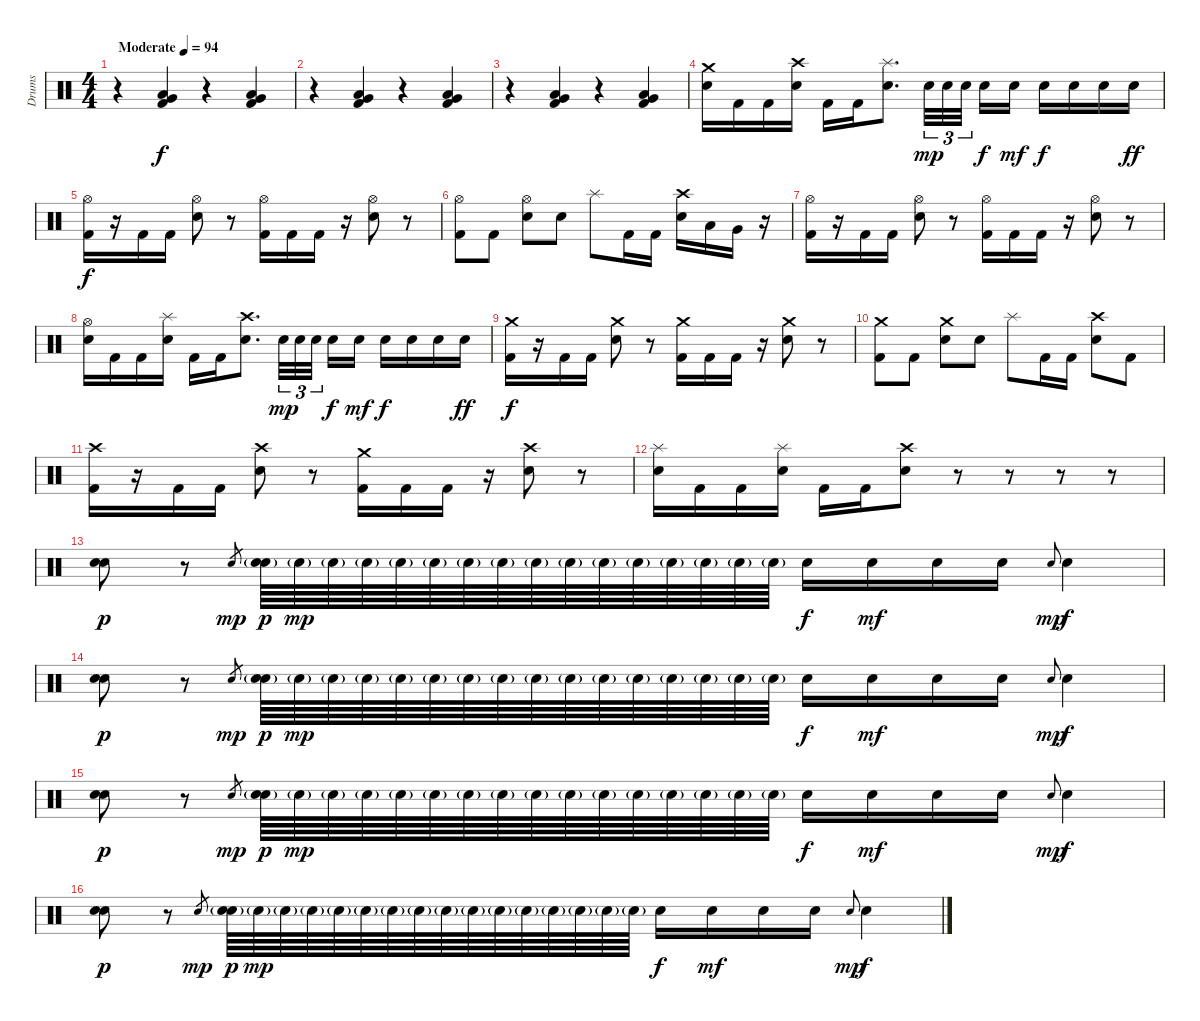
\track ("Drums" "Drums") {instrument percussion}
\staff {score}
\articulation defaults
\ts (4 4)
\tempo (94 "Moderate")
\clef neutral
\ks c
r.4{dy f} ("Very Low Tom (hit)" "Low Floor Tom (hit)" "Kick (hit) 2").4 r.4 ("Very Low Tom (hit)" "Low Floor Tom (hit)" "Kick (hit) 2").4 |
r.4 ("Very Low Tom (hit)" "Low Floor Tom (hit)" "Kick (hit) 2").4 r.4 ("Very Low Tom (hit)" "Low Floor Tom (hit)" "Kick (hit) 2").4 |
r.4 ("Very Low Tom (hit)" "Low Floor Tom (hit)" "Kick (hit) 2").4 r.4 ("Very Low Tom (hit)" "Low Floor Tom (hit)" "Kick (hit) 2").4 |
("Crash medium (hit)" "Electric Snare (hit)").16 "Kick (hit) 2".16 "Kick (hit) 2".16 ("Crash high (hit)" "Electric Snare (hit)").16 "Kick (hit) 2".16 "Kick (hit) 2".16 ("Splash (hit)" "Electric Snare (hit)").8{d} "Electric Snare (hit)".32{tu (3 2) dy mp} "Electric Snare (hit)".32{tu (3 2)} "Electric Snare (hit)".32{tu (3 2) beam splitsecondary} "Electric Snare (hit)".16{dy f} "Electric Snare (hit)".16{dy mf} "Electric Snare (hit)".16{dy f} "Electric Snare (hit)".16 "Electric Snare (hit)".16 "Electric Snare (hit)".16{dy ff} |
("Hi-Hat (open)" "Kick (hit) 2").16{dy f} r.16 "Kick (hit) 2".16 "Kick (hit) 2".16 ("Hi-Hat (open)" "Electric Snare (hit)").8 r.8 ("Hi-Hat (open)" "Kick (hit) 2").16 "Kick (hit) 2".16 "Kick (hit) 2".16 r.16 ("Hi-Hat (open)" "Electric Snare (hit)").8 r.8 |
("Hi-Hat (open)" "Kick (hit) 2").8 "Kick (hit) 2".8 ("Hi-Hat (open)" "Electric Snare (hit)").8 "Electric Snare (hit)".8 "Splash (hit)".8 "Kick (hit) 2".16 "Kick (hit) 2".16 ("Crash high (hit)" "Electric Snare (hit)").16 "Low Tom (hit)".16 "Very Low Tom (hit)".16 r.16 |
("Hi-Hat (open)" "Kick (hit) 2").16 r.16 "Kick (hit) 2".16 "Kick (hit) 2".16 ("Hi-Hat (open)" "Electric Snare (hit)").8 r.8 ("Hi-Hat (open)" "Kick (hit) 2").16 "Kick (hit) 2".16 "Kick (hit) 2".16 r.16 ("Hi-Hat (open)" "Electric Snare (hit)").8 r.8 |
("Hi-Hat (open)" "Electric Snare (hit)").16 "Kick (hit) 2".16 "Kick (hit) 2".16 ("Splash (hit)" "Electric Snare (hit)").16 "Kick (hit) 2".16 "Kick (hit) 2".16 ("Crash high (hit)" "Electric Snare (hit)").8{d} "Electric Snare (hit)".32{tu (3 2) dy mp} "Electric Snare (hit)".32{tu (3 2)} "Electric Snare (hit)".32{tu (3 2) beam splitsecondary} "Electric Snare (hit)".16{dy f} "Electric Snare (hit)".16{dy mf} "Electric Snare (hit)".16{dy f} "Electric Snare (hit)".16 "Electric Snare (hit)".16 "Electric Snare (hit)".16{dy ff} |
("Crash medium (hit)" "Kick (hit) 2").16{dy f} r.16 "Kick (hit) 2".16 "Kick (hit) 2".16 ("Crash medium (hit)" "Electric Snare (hit)").8 r.8 ("Crash medium (hit)" "Kick (hit) 2").16 "Kick (hit) 2".16 "Kick (hit) 2".16 r.16 ("Crash medium (hit)" "Electric Snare (hit)").8 r.8 |
("Crash medium (hit)" "Kick (hit) 2").8 "Kick (hit) 2".8 ("Crash medium (hit)" "Electric Snare (hit)").8 "Electric Snare (hit)".8 "Splash (hit)".8 "Kick (hit) 2".16 "Kick (hit) 2".16 ("Crash high (hit)" "Electric Snare (hit)").8 "Kick (hit) 2".8 |
("Crash high (hit)" "Kick (hit) 2").16 r.16 "Kick (hit) 2".16 "Kick (hit) 2".16 ("Crash high (hit)" "Electric Snare (hit)").8 r.8 ("Crash medium (hit)" "Kick (hit) 2").16 "Kick (hit) 2".16 "Kick (hit) 2".16 r.16 ("Crash high (hit)" "Electric Snare (hit)").8 r.8 |
("Splash (hit)" "Electric Snare (hit)").16 "Kick (hit) 2".16 "Kick (hit) 2".16 ("Splash (hit)" "Electric Snare (hit)").16 "Kick (hit) 2".16 "Kick (hit) 2".16 ("Crash high (hit)" "Electric Snare (hit)").8 r.8 r.8 r.8 r.8 |
("Electric Snare (hit)" "Snare (hit) 2").8{dy p} r.8 "Electric Snare (hit)".8{gr dy mp} ("Electric Snare (hit)"{g} "Snare (hit) 2").64{dy p} "Electric Snare (hit)"{g}.64{dy mp} "Electric Snare (hit)"{g}.64 "Electric Snare (hit)"{g}.64 "Electric Snare (hit)"{g}.64 "Electric Snare (hit)"{g}.64 "Electric Snare (hit)"{g}.64 "Electric Snare (hit)"{g}.64 "Electric Snare (hit)"{g}.64 "Electric Snare (hit)"{g}.64 "Electric Snare (hit)"{g}.64 "Electric Snare (hit)"{g}.64 "Electric Snare (hit)"{g}.64 "Electric Snare (hit)"{g}.64 "Electric Snare (hit)"{g}.64 "Electric Snare (hit)"{g}.64 "Electric Snare (hit)".16{dy f} "Electric Snare (hit)".16{dy mf} "Electric Snare (hit)".16 "Electric Snare (hit)".16 "Electric Snare (hit)".8{gr onbeat dy mp} "Electric Snare (hit)".4{dy f} |
("Electric Snare (hit)" "Snare (hit) 2").8{dy p} r.8 "Electric Snare (hit)".8{gr dy mp} ("Electric Snare (hit)"{g} "Snare (hit) 2").64{dy p} "Electric Snare (hit)"{g}.64{dy mp} "Electric Snare (hit)"{g}.64 "Electric Snare (hit)"{g}.64 "Electric Snare (hit)"{g}.64 "Electric Snare (hit)"{g}.64 "Electric Snare (hit)"{g}.64 "Electric Snare (hit)"{g}.64 "Electric Snare (hit)"{g}.64 "Electric Snare (hit)"{g}.64 "Electric Snare (hit)"{g}.64 "Electric Snare (hit)"{g}.64 "Electric Snare (hit)"{g}.64 "Electric Snare (hit)"{g}.64 "Electric Snare (hit)"{g}.64 "Electric Snare (hit)"{g}.64 "Electric Snare (hit)".16{dy f} "Electric Snare (hit)".16{dy mf} "Electric Snare (hit)".16 "Electric Snare (hit)".16 "Electric Snare (hit)".8{gr onbeat dy mp} "Electric Snare (hit)".4{dy f} |
("Electric Snare (hit)" "Snare (hit) 2").8{dy p} r.8 "Electric Snare (hit)".8{gr dy mp} ("Electric Snare (hit)"{g} "Snare (hit) 2").64{dy p} "Electric Snare (hit)"{g}.64{dy mp} "Electric Snare (hit)"{g}.64 "Electric Snare (hit)"{g}.64 "Electric Snare (hit)"{g}.64 "Electric Snare (hit)"{g}.64 "Electric Snare (hit)"{g}.64 "Electric Snare (hit)"{g}.64 "Electric Snare (hit)"{g}.64 "Electric Snare (hit)"{g}.64 "Electric Snare (hit)"{g}.64 "Electric Snare (hit)"{g}.64 "Electric Snare (hit)"{g}.64 "Electric Snare (hit)"{g}.64 "Electric Snare (hit)"{g}.64 "Electric Snare (hit)"{g}.64 "Electric Snare (hit)".16{dy f} "Electric Snare (hit)".16{dy mf} "Electric Snare (hit)".16 "Electric Snare (hit)".16 "Electric Snare (hit)".8{gr onbeat dy mp} "Electric Snare (hit)".4{dy f} |
("Electric Snare (hit)" "Snare (hit) 2").8{dy p} r.8 "Electric Snare (hit)".8{gr dy mp} ("Electric Snare (hit)"{g} "Snare (hit) 2").64{dy p} "Electric Snare (hit)"{g}.64{dy mp} "Electric Snare (hit)"{g}.64 "Electric Snare (hit)"{g}.64 "Electric Snare (hit)"{g}.64 "Electric Snare (hit)"{g}.64 "Electric Snare (hit)"{g}.64 "Electric Snare (hit)"{g}.64 "Electric Snare (hit)"{g}.64 "Electric Snare (hit)"{g}.64 "Electric Snare (hit)"{g}.64 "Electric Snare (hit)"{g}.64 "Electric Snare (hit)"{g}.64 "Electric Snare (hit)"{g}.64 "Electric Snare (hit)"{g}.64 "Electric Snare (hit)"{g}.64 "Electric Snare (hit)".16{dy f} "Electric Snare (hit)".16{dy mf} "Electric Snare (hit)".16 "Electric Snare (hit)".16 "Electric Snare (hit)".8{gr onbeat dy mp} "Electric Snare (hit)".4{dy f}
